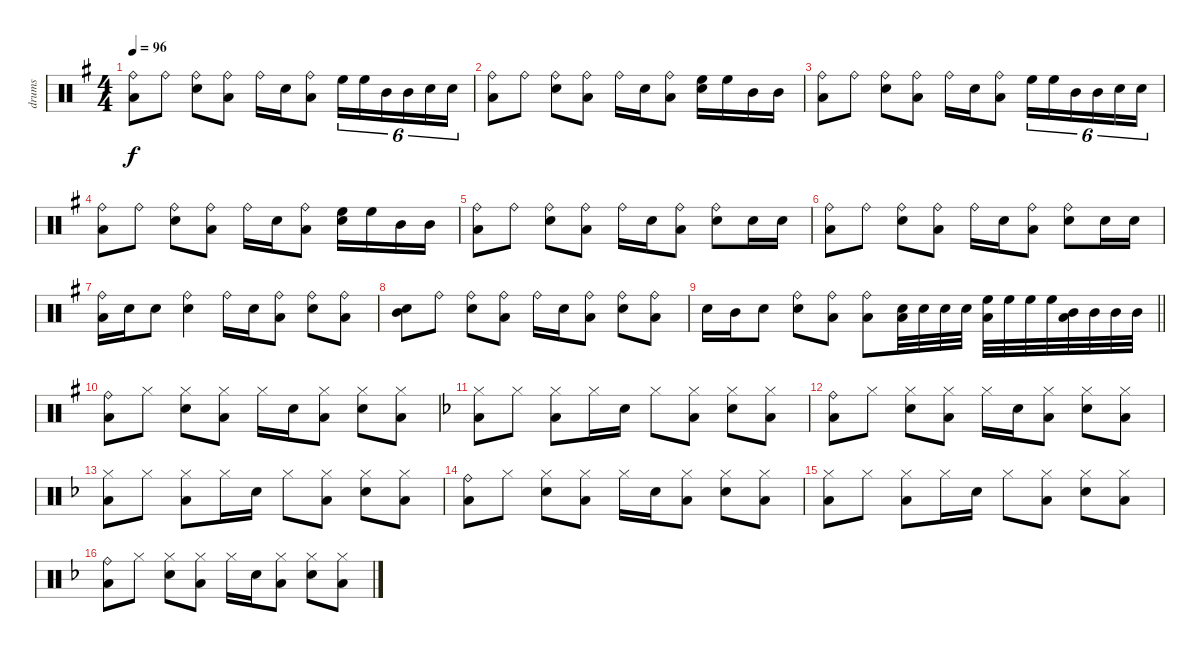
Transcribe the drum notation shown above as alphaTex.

\track ("drums" "drums") {instrument percussion}
\staff {score}
\articulation defaults
\ts (4 4)
\tempo 96
\clef neutral
\ks g
("Ride (bell)" "Low Floor Tom (hit)").8{dy f} "Ride (bell)".8 ("Ride (bell)" "Electric Snare (hit)").8 ("Ride (bell)" "Low Floor Tom (hit)").8 "Ride (bell)".16 "Electric Snare (hit)".16 ("Ride (bell)" "Low Floor Tom (hit)").8 "High Floor Tom (hit)".16{tu (6 4)} "High Floor Tom (hit)".16{tu (6 4)} "Mid Tom (hit)".16{tu (6 4)} "Mid Tom (hit)".16{tu (6 4)} "Snare (hit) 2".16{tu (6 4)} "Snare (hit) 2".16{tu (6 4)} |
("Ride (bell)" "Low Floor Tom (hit)").8 "Ride (bell)".8 ("Ride (bell)" "Electric Snare (hit)").8 ("Ride (bell)" "Low Floor Tom (hit)").8 "Ride (bell)".16 "Electric Snare (hit)".16 ("Ride (bell)" "Low Floor Tom (hit)").8 ("High Floor Tom (hit)" "Electric Snare (hit)").16 "High Floor Tom (hit)".16 "Mid Tom (hit)".16 "Mid Tom (hit)".16 |
("Ride (bell)" "Low Floor Tom (hit)").8 "Ride (bell)".8 ("Ride (bell)" "Electric Snare (hit)").8 ("Ride (bell)" "Low Floor Tom (hit)").8 "Ride (bell)".16 "Electric Snare (hit)".16 ("Ride (bell)" "Low Floor Tom (hit)").8 "High Floor Tom (hit)".16{tu (6 4)} "High Floor Tom (hit)".16{tu (6 4)} "Mid Tom (hit)".16{tu (6 4)} "Mid Tom (hit)".16{tu (6 4)} "Snare (hit) 2".16{tu (6 4)} "Snare (hit) 2".16{tu (6 4)} |
("Ride (bell)" "Low Floor Tom (hit)").8 "Ride (bell)".8 ("Ride (bell)" "Electric Snare (hit)").8 ("Ride (bell)" "Low Floor Tom (hit)").8 "Ride (bell)".16 "Electric Snare (hit)".16 ("Ride (bell)" "Low Floor Tom (hit)").8 ("High Floor Tom (hit)" "Electric Snare (hit)").16 "High Floor Tom (hit)".16 "Mid Tom (hit)".16 "Mid Tom (hit)".16 |
("Ride (bell)" "Low Floor Tom (hit)").8 "Ride (bell)".8 ("Ride (bell)" "Electric Snare (hit)").8 ("Ride (bell)" "Low Floor Tom (hit)").8 "Ride (bell)".16 "Electric Snare (hit)".16 ("Ride (bell)" "Low Floor Tom (hit)").8 ("Ride (bell)" "Electric Snare (hit)").8 "Snare (hit) 2".16 "Snare (hit) 2".16 |
("Ride (bell)" "Low Floor Tom (hit)").8 "Ride (bell)".8 ("Ride (bell)" "Electric Snare (hit)").8 ("Ride (bell)" "Low Floor Tom (hit)").8 "Ride (bell)".16 "Electric Snare (hit)".16 ("Ride (bell)" "Low Floor Tom (hit)").8 ("Ride (bell)" "Electric Snare (hit)").8 "Snare (hit) 2".16 "Snare (hit) 2".16 |
("Ride (bell)" "Low Floor Tom (hit)").16 "Electric Snare (hit)".16 "Electric Snare (hit)".8 ("Ride (bell)" "Electric Snare (hit)").4 "Ride (bell)".16 "Electric Snare (hit)".16 ("Ride (bell)" "Low Floor Tom (hit)").8 ("Ride (bell)" "Electric Snare (hit)").8 ("Ride (bell)" "Low Floor Tom (hit)").8 |
("Mid Tom (hit)" "Snare (hit) 2").8 "Ride (bell)".8 ("Ride (bell)" "Electric Snare (hit)").8 ("Ride (bell)" "Low Floor Tom (hit)").8 "Ride (bell)".16 "Electric Snare (hit)".16 ("Ride (bell)" "Low Floor Tom (hit)").8 ("Ride (bell)" "Electric Snare (hit)").8 ("Ride (bell)" "Low Floor Tom (hit)").8 |
\barLineRight lightlight "Electric Snare (hit)".16 "Mid Tom (hit)".16 "Snare (hit) 2".8
("Ride (bell)" "Electric Snare (hit)").8 ("Ride (bell)" "Low Floor Tom (hit)").8 ("Ride (bell)" "Low Floor Tom (hit)").8 ("Electric Snare (hit)" "Low Floor Tom (hit)").32 "Electric Snare (hit)".32 "Electric Snare (hit)".32 "Electric Snare (hit)".32 ("High Floor Tom (hit)" "Low Floor Tom (hit)").32 "High Floor Tom (hit)".32 "High Floor Tom (hit)".32 "High Floor Tom (hit)".32 ("Mid Tom (hit)" "Low Floor Tom (hit)").32 "Mid Tom (hit)".32 "Mid Tom (hit)".32 "Mid Tom (hit)".32 |
("Ride (bell)" "Low Floor Tom (hit)").8 "Hi-Hat (closed)".8 ("Hi-Hat (closed)" "Electric Snare (hit)").8 ("Hi-Hat (closed)" "Low Floor Tom (hit)").8 "Hi-Hat (closed)".16 "Electric Snare (hit)".16 ("Hi-Hat (closed)" "Low Floor Tom (hit)").8 ("Hi-Hat (closed)" "Electric Snare (hit)").8 ("Hi-Hat (closed)" "Low Floor Tom (hit)").8 |
\ks f
("Hi-Hat (closed)" "Low Floor Tom (hit)").8 "Hi-Hat (closed)".8 ("Hi-Hat (closed)" "Low Floor Tom (hit)").8 "Hi-Hat (closed)".16 "Electric Snare (hit)".16 "Hi-Hat (closed)".8 ("Hi-Hat (closed)" "Low Floor Tom (hit)").8 ("Hi-Hat (closed)" "Electric Snare (hit)").8 ("Hi-Hat (closed)" "Low Floor Tom (hit)").8 |
("Ride (bell)" "Low Floor Tom (hit)").8 "Hi-Hat (closed)".8 ("Hi-Hat (closed)" "Electric Snare (hit)").8 ("Hi-Hat (closed)" "Low Floor Tom (hit)").8 "Hi-Hat (closed)".16 "Electric Snare (hit)".16 ("Hi-Hat (closed)" "Low Floor Tom (hit)").8 ("Hi-Hat (closed)" "Electric Snare (hit)").8 ("Hi-Hat (closed)" "Low Floor Tom (hit)").8 |
("Hi-Hat (closed)" "Low Floor Tom (hit)").8 "Hi-Hat (closed)".8 ("Hi-Hat (closed)" "Low Floor Tom (hit)").8 "Hi-Hat (closed)".16 "Electric Snare (hit)".16 "Hi-Hat (closed)".8 ("Hi-Hat (closed)" "Low Floor Tom (hit)").8 ("Hi-Hat (closed)" "Electric Snare (hit)").8 ("Hi-Hat (closed)" "Low Floor Tom (hit)").8 |
("Ride (bell)" "Low Floor Tom (hit)").8 "Hi-Hat (closed)".8 ("Hi-Hat (closed)" "Electric Snare (hit)").8 ("Hi-Hat (closed)" "Low Floor Tom (hit)").8 "Hi-Hat (closed)".16 "Electric Snare (hit)".16 ("Hi-Hat (closed)" "Low Floor Tom (hit)").8 ("Hi-Hat (closed)" "Electric Snare (hit)").8 ("Hi-Hat (closed)" "Low Floor Tom (hit)").8 |
("Hi-Hat (closed)" "Low Floor Tom (hit)").8 "Hi-Hat (closed)".8 ("Hi-Hat (closed)" "Low Floor Tom (hit)").8 "Hi-Hat (closed)".16 "Electric Snare (hit)".16 "Hi-Hat (closed)".8 ("Hi-Hat (closed)" "Low Floor Tom (hit)").8 ("Hi-Hat (closed)" "Electric Snare (hit)").8 ("Hi-Hat (closed)" "Low Floor Tom (hit)").8 |
("Ride (bell)" "Low Floor Tom (hit)").8 "Hi-Hat (closed)".8 ("Hi-Hat (closed)" "Electric Snare (hit)").8 ("Hi-Hat (closed)" "Low Floor Tom (hit)").8 "Hi-Hat (closed)".16 "Electric Snare (hit)".16 ("Hi-Hat (closed)" "Low Floor Tom (hit)").8 ("Hi-Hat (closed)" "Electric Snare (hit)").8 ("Hi-Hat (closed)" "Low Floor Tom (hit)").8
